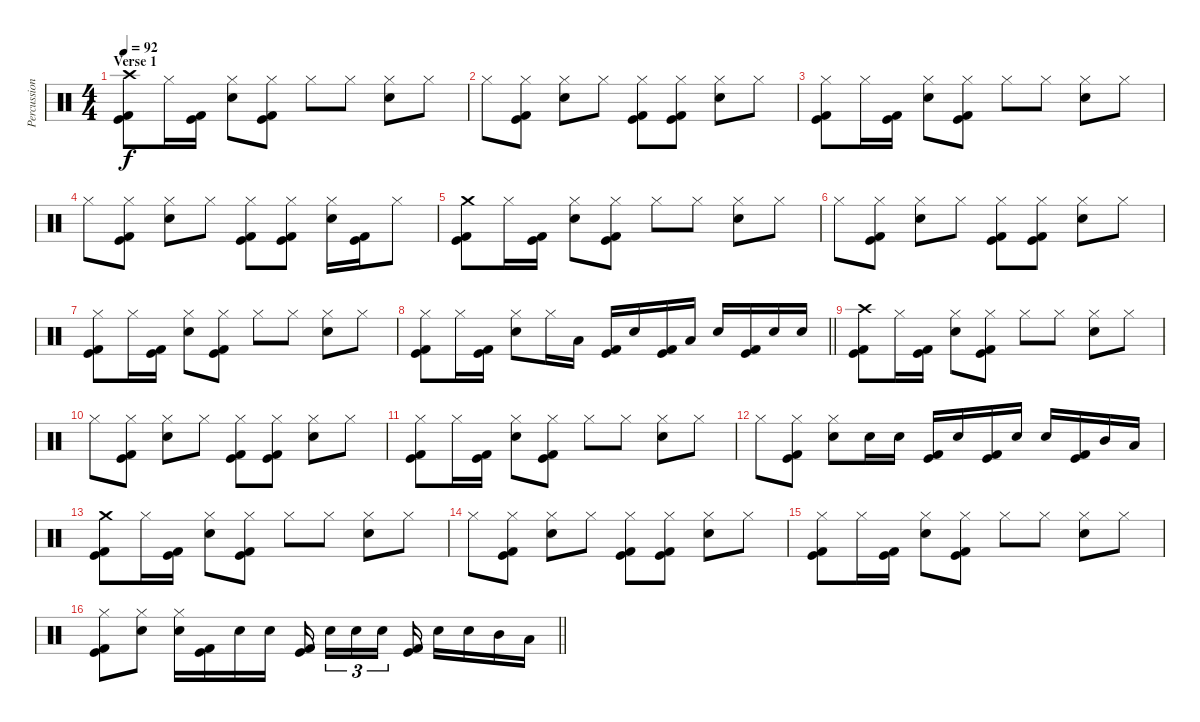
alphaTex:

\track ("Percussion" "Percussion") {instrument percussion}
\staff {score}
\articulation defaults
\ts (4 4)
\section ("" "Verse 1")
\tempo 92
\clef neutral
\ks c
("Crash high (hit)" "Kick (hit)" "Kick (hit) 2").8{dy f} "Hi-Hat (closed)".16 ("Kick (hit)" "Kick (hit) 2").16 ("Hi-Hat (closed)" "Electric Snare (hit)").8 ("Hi-Hat (closed)" "Kick (hit)" "Kick (hit) 2").8 "Hi-Hat (closed)".8 "Hi-Hat (closed)".8 ("Hi-Hat (closed)" "Electric Snare (hit)").8 "Hi-Hat (closed)".8 |
"Hi-Hat (closed)".8 ("Hi-Hat (closed)" "Kick (hit)" "Kick (hit) 2").8 ("Hi-Hat (closed)" "Electric Snare (hit)").8 "Hi-Hat (closed)".8 ("Hi-Hat (closed)" "Kick (hit)" "Kick (hit) 2").8 ("Hi-Hat (closed)" "Kick (hit)" "Kick (hit) 2").8 ("Hi-Hat (closed)" "Electric Snare (hit)").8 "Hi-Hat (closed)".8 |
("Hi-Hat (closed)" "Kick (hit)" "Kick (hit) 2").8 "Hi-Hat (closed)".16 ("Kick (hit)" "Kick (hit) 2").16 ("Hi-Hat (closed)" "Electric Snare (hit)").8 ("Hi-Hat (closed)" "Kick (hit)" "Kick (hit) 2").8 "Hi-Hat (closed)".8 "Hi-Hat (closed)".8 ("Hi-Hat (closed)" "Electric Snare (hit)").8 "Hi-Hat (closed)".8 |
"Hi-Hat (closed)".8 ("Hi-Hat (closed)" "Kick (hit)" "Kick (hit) 2").8 ("Hi-Hat (closed)" "Electric Snare (hit)").8 "Hi-Hat (closed)".8 ("Hi-Hat (closed)" "Kick (hit)" "Kick (hit) 2").8 ("Hi-Hat (closed)" "Kick (hit)" "Kick (hit) 2").8 ("Hi-Hat (closed)" "Electric Snare (hit)").16 ("Kick (hit)" "Kick (hit) 2").16 "Hi-Hat (closed)".8 |
("Crash medium (hit)" "Kick (hit)" "Kick (hit) 2").8 "Hi-Hat (closed)".16 ("Kick (hit)" "Kick (hit) 2").16 ("Hi-Hat (closed)" "Electric Snare (hit)").8 ("Hi-Hat (closed)" "Kick (hit)" "Kick (hit) 2").8 "Hi-Hat (closed)".8 "Hi-Hat (closed)".8 ("Hi-Hat (closed)" "Electric Snare (hit)").8 "Hi-Hat (closed)".8 |
"Hi-Hat (closed)".8 ("Hi-Hat (closed)" "Kick (hit)" "Kick (hit) 2").8 ("Hi-Hat (closed)" "Electric Snare (hit)").8 "Hi-Hat (closed)".8 ("Hi-Hat (closed)" "Kick (hit)" "Kick (hit) 2").8 ("Hi-Hat (closed)" "Kick (hit)" "Kick (hit) 2").8 ("Hi-Hat (closed)" "Electric Snare (hit)").8 "Hi-Hat (closed)".8 |
("Hi-Hat (closed)" "Kick (hit)" "Kick (hit) 2").8 "Hi-Hat (closed)".16 ("Kick (hit)" "Kick (hit) 2").16 ("Hi-Hat (closed)" "Electric Snare (hit)").8 ("Hi-Hat (closed)" "Kick (hit)" "Kick (hit) 2").8 "Hi-Hat (closed)".8 "Hi-Hat (closed)".8 ("Hi-Hat (closed)" "Electric Snare (hit)").8 "Hi-Hat (closed)".8 |
\barLineRight lightlight
("Hi-Hat (closed)" "Kick (hit)" "Kick (hit) 2").8 "Hi-Hat (closed)".16 ("Kick (hit)" "Kick (hit) 2").16 ("Hi-Hat (closed)" "Electric Snare (hit)").8 "Hi-Hat (closed)".16 "Low Tom (hit)".16 ("Kick (hit)" "Kick (hit) 2").16 "Electric Snare (hit)".16 ("Kick (hit)" "Kick (hit) 2").16 "Low Tom (hit)".16 "Electric Snare (hit)".16 ("Kick (hit)" "Kick (hit) 2").16 "Electric Snare (hit)".16 "Electric Snare (hit)".16 |
\section ("" "")
("Crash high (hit)" "Kick (hit)" "Kick (hit) 2").8 "Hi-Hat (closed)".16 ("Kick (hit)" "Kick (hit) 2").16 ("Hi-Hat (closed)" "Electric Snare (hit)").8 ("Hi-Hat (closed)" "Kick (hit)" "Kick (hit) 2").8 "Hi-Hat (closed)".8 "Hi-Hat (closed)".8 ("Hi-Hat (closed)" "Electric Snare (hit)").8 "Hi-Hat (closed)".8 |
"Hi-Hat (closed)".8 ("Hi-Hat (closed)" "Kick (hit)" "Kick (hit) 2").8 ("Hi-Hat (closed)" "Electric Snare (hit)").8 "Hi-Hat (closed)".8 ("Hi-Hat (closed)" "Kick (hit)" "Kick (hit) 2").8 ("Hi-Hat (closed)" "Kick (hit)" "Kick (hit) 2").8 ("Hi-Hat (closed)" "Electric Snare (hit)").8 "Hi-Hat (closed)".8 |
("Hi-Hat (closed)" "Kick (hit)" "Kick (hit) 2").8 "Hi-Hat (closed)".16 ("Kick (hit)" "Kick (hit) 2").16 ("Hi-Hat (closed)" "Electric Snare (hit)").8 ("Hi-Hat (closed)" "Kick (hit)" "Kick (hit) 2").8 "Hi-Hat (closed)".8 "Hi-Hat (closed)".8 ("Hi-Hat (closed)" "Electric Snare (hit)").8 "Hi-Hat (closed)".8 |
"Hi-Hat (closed)".8 ("Hi-Hat (closed)" "Kick (hit)" "Kick (hit) 2").8 ("Hi-Hat (closed)" "Electric Snare (hit)").8 "Electric Snare (hit)".16 "Electric Snare (hit)".16 ("Kick (hit)" "Kick (hit) 2").16 "Electric Snare (hit)".16 ("Kick (hit)" "Kick (hit) 2").16 "Electric Snare (hit)".16 "Electric Snare (hit)".16 ("Kick (hit)" "Kick (hit) 2").16 "Mid Tom (hit)".16 "Low Tom (hit)".16 |
("Crash medium (hit)" "Kick (hit)" "Kick (hit) 2").8 "Hi-Hat (closed)".16 ("Kick (hit)" "Kick (hit) 2").16 ("Hi-Hat (closed)" "Electric Snare (hit)").8 ("Hi-Hat (closed)" "Kick (hit)" "Kick (hit) 2").8 "Hi-Hat (closed)".8 "Hi-Hat (closed)".8 ("Hi-Hat (closed)" "Electric Snare (hit)").8 "Hi-Hat (closed)".8 |
"Hi-Hat (closed)".8 ("Hi-Hat (closed)" "Kick (hit)" "Kick (hit) 2").8 ("Hi-Hat (closed)" "Electric Snare (hit)").8 "Hi-Hat (closed)".8 ("Hi-Hat (closed)" "Kick (hit)" "Kick (hit) 2").8 ("Hi-Hat (closed)" "Kick (hit)" "Kick (hit) 2").8 ("Hi-Hat (closed)" "Electric Snare (hit)").8 "Hi-Hat (closed)".8 |
("Hi-Hat (closed)" "Kick (hit)" "Kick (hit) 2").8 "Hi-Hat (closed)".16 ("Kick (hit)" "Kick (hit) 2").16 ("Hi-Hat (closed)" "Electric Snare (hit)").8 ("Hi-Hat (closed)" "Kick (hit)" "Kick (hit) 2").8 "Hi-Hat (closed)".8 "Hi-Hat (closed)".8 ("Hi-Hat (closed)" "Electric Snare (hit)").8 "Hi-Hat (closed)".8 |
\barLineRight lightlight
("Hi-Hat (closed)" "Kick (hit)" "Kick (hit) 2").8 ("Hi-Hat (closed)" "Electric Snare (hit)").8 ("Hi-Hat (closed)" "Electric Snare (hit)").16 ("Kick (hit)" "Kick (hit) 2").16 "Electric Snare (hit)".16 "Electric Snare (hit)".16 ("Kick (hit)" "Kick (hit) 2").16{beam splitsecondary} "Electric Snare (hit)".16{tu (3 2)} "Electric Snare (hit)".16{tu (3 2)} "Electric Snare (hit)".16{tu (3 2) beam splitsecondary} ("Kick (hit)" "Kick (hit) 2").16 "Electric Snare (hit)".16 "Electric Snare (hit)".16 "Mid Tom (hit)".16 "Low Tom (hit)".16
